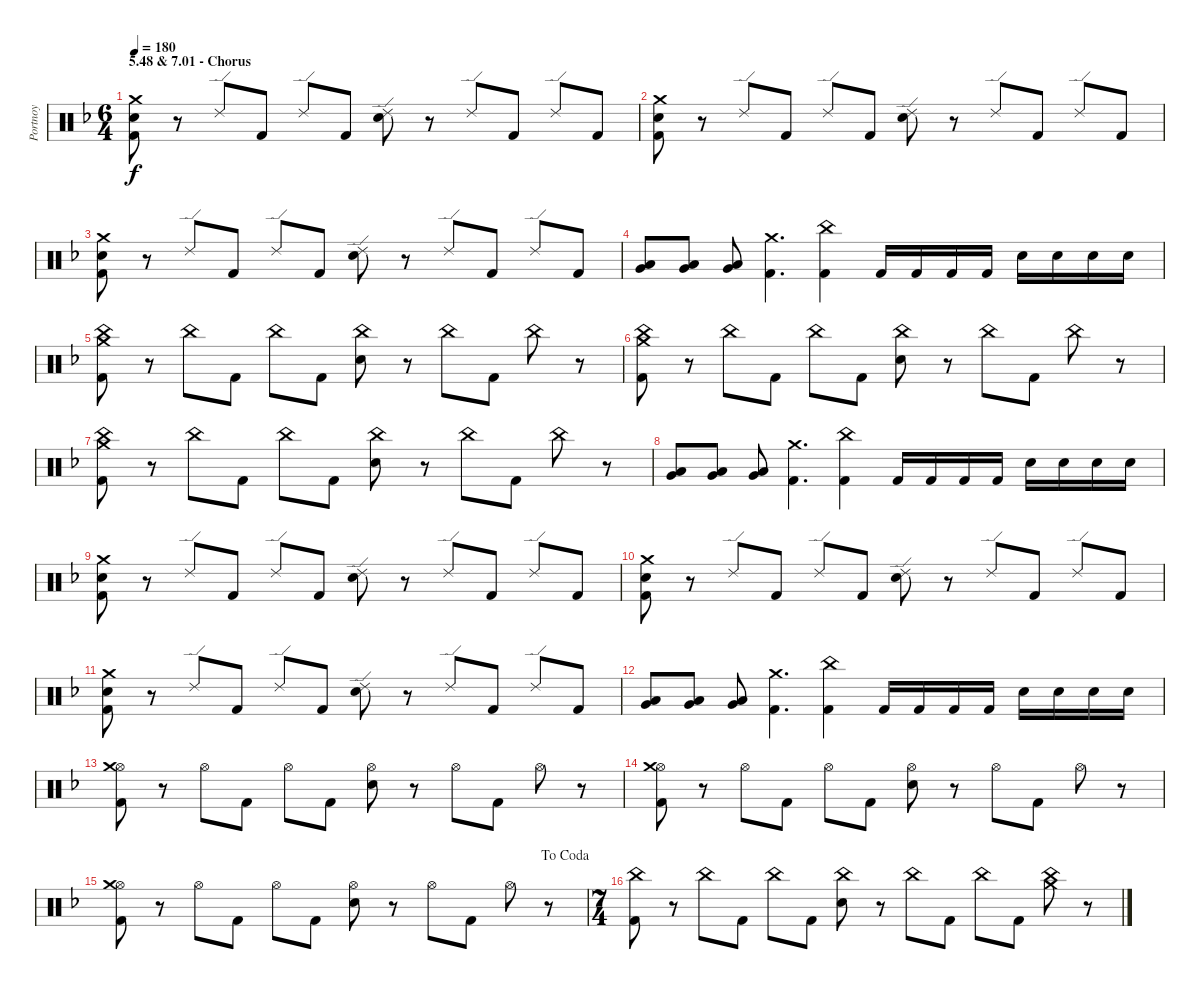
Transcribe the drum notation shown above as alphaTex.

\track ("Portnoy" "Portnoy") {instrument percussion}
\staff {score}
\articulation defaults
\ts (6 4)
\section ("" "5.48 & 7.01 - Chorus")
\tempo 180
\clef neutral
\ks f
("Crash medium (hit)" "Electric Snare (hit)" "Kick (hit) 2").8{dy f} r.8 "Ride (edge) 2".8 "Kick (hit) 2".8 "Ride (edge) 2".8 "Kick (hit) 2".8 ("Ride (edge) 2" "Electric Snare (hit)").8 r.8 "Ride (edge) 2".8 "Kick (hit) 2".8 "Ride (edge) 2".8 "Kick (hit) 2".8 |
("Crash medium (hit)" "Electric Snare (hit)" "Kick (hit) 2").8 r.8 "Ride (edge) 2".8 "Kick (hit) 2".8 "Ride (edge) 2".8 "Kick (hit) 2".8 ("Ride (edge) 2" "Electric Snare (hit)").8 r.8 "Ride (edge) 2".8 "Kick (hit) 2".8 "Ride (edge) 2".8 "Kick (hit) 2".8 |
("Crash medium (hit)" "Electric Snare (hit)" "Kick (hit) 2").8 r.8 "Ride (edge) 2".8 "Kick (hit) 2".8 "Ride (edge) 2".8 "Kick (hit) 2".8 ("Ride (edge) 2" "Electric Snare (hit)").8 r.8 "Ride (edge) 2".8 "Kick (hit) 2".8 "Ride (edge) 2".8 "Kick (hit) 2".8 |
("Very Low Tom (hit)" "Low Tom (hit)").8 ("Very Low Tom (hit)" "Low Tom (hit)").8 ("Very Low Tom (hit)" "Low Tom (hit)").8 ("Crash medium (hit)" "Kick (hit) 2").4{d} ("China (hit)" "Kick (hit) 2").4 "Kick (hit) 2".16 "Kick (hit) 2".16 "Kick (hit) 2".16 "Kick (hit) 2".16 "Electric Snare (hit)".16 "Electric Snare (hit)".16 "Electric Snare (hit)".16 "Electric Snare (hit)".16 |
("China (hit)" "Crash medium (hit)" "Kick (hit) 2").8 r.8 "China (hit)".8 "Kick (hit) 2".8 "China (hit)".8 "Kick (hit) 2".8 ("China (hit)" "Electric Snare (hit)").8 r.8 "China (hit)".8 "Kick (hit) 2".8 "China (hit)".8 r.8 |
("China (hit)" "Crash medium (hit)" "Kick (hit) 2").8 r.8 "China (hit)".8 "Kick (hit) 2".8 "China (hit)".8 "Kick (hit) 2".8 ("China (hit)" "Electric Snare (hit)").8 r.8 "China (hit)".8 "Kick (hit) 2".8 "China (hit)".8 r.8 |
("China (hit)" "Crash medium (hit)" "Kick (hit) 2").8 r.8 "China (hit)".8 "Kick (hit) 2".8 "China (hit)".8 "Kick (hit) 2".8 ("China (hit)" "Electric Snare (hit)").8 r.8 "China (hit)".8 "Kick (hit) 2".8 "China (hit)".8 r.8 |
("Very Low Tom (hit)" "Low Tom (hit)").8 ("Very Low Tom (hit)" "Low Tom (hit)").8 ("Very Low Tom (hit)" "Low Tom (hit)").8 ("Crash medium (hit)" "Kick (hit) 2").4{d} ("China (hit)" "Kick (hit) 2").4 "Kick (hit) 2".16 "Kick (hit) 2".16 "Kick (hit) 2".16 "Kick (hit) 2".16 "Electric Snare (hit)".16 "Electric Snare (hit)".16 "Electric Snare (hit)".16 "Electric Snare (hit)".16 |
("Crash medium (hit)" "Electric Snare (hit)" "Kick (hit) 2").8 r.8 "Ride (edge) 2".8 "Kick (hit) 2".8 "Ride (edge) 2".8 "Kick (hit) 2".8 ("Ride (edge) 2" "Electric Snare (hit)").8 r.8 "Ride (edge) 2".8 "Kick (hit) 2".8 "Ride (edge) 2".8 "Kick (hit) 2".8 |
("Crash medium (hit)" "Electric Snare (hit)" "Kick (hit) 2").8 r.8 "Ride (edge) 2".8 "Kick (hit) 2".8 "Ride (edge) 2".8 "Kick (hit) 2".8 ("Ride (edge) 2" "Electric Snare (hit)").8 r.8 "Ride (edge) 2".8 "Kick (hit) 2".8 "Ride (edge) 2".8 "Kick (hit) 2".8 |
("Crash medium (hit)" "Electric Snare (hit)" "Kick (hit) 2").8 r.8 "Ride (edge) 2".8 "Kick (hit) 2".8 "Ride (edge) 2".8 "Kick (hit) 2".8 ("Ride (edge) 2" "Electric Snare (hit)").8 r.8 "Ride (edge) 2".8 "Kick (hit) 2".8 "Ride (edge) 2".8 "Kick (hit) 2".8 |
("Very Low Tom (hit)" "Low Tom (hit)").8 ("Very Low Tom (hit)" "Low Tom (hit)").8 ("Very Low Tom (hit)" "Low Tom (hit)").8 ("Crash medium (hit)" "Kick (hit) 2").4{d} ("China (hit)" "Kick (hit) 2").4 "Kick (hit) 2".16 "Kick (hit) 2".16 "Kick (hit) 2".16 "Kick (hit) 2".16 "Electric Snare (hit)".16 "Electric Snare (hit)".16 "Electric Snare (hit)".16 "Electric Snare (hit)".16 |
("Hi-Hat (open)" "Crash medium (hit)" "Kick (hit) 2").8 r.8 "Hi-Hat (open)".8 "Kick (hit) 2".8 "Hi-Hat (open)".8 "Kick (hit) 2".8 ("Hi-Hat (open)" "Electric Snare (hit)").8 r.8 "Hi-Hat (open)".8 "Kick (hit) 2".8 "Hi-Hat (open)".8 r.8 |
("Hi-Hat (open)" "Crash medium (hit)" "Kick (hit) 2").8 r.8 "Hi-Hat (open)".8 "Kick (hit) 2".8 "Hi-Hat (open)".8 "Kick (hit) 2".8 ("Hi-Hat (open)" "Electric Snare (hit)").8 r.8 "Hi-Hat (open)".8 "Kick (hit) 2".8 "Hi-Hat (open)".8 r.8 |
\jump dacoda
("Hi-Hat (open)" "Crash medium (hit)" "Kick (hit) 2").8 r.8 "Hi-Hat (open)".8 "Kick (hit) 2".8 "Hi-Hat (open)".8 "Kick (hit) 2".8 ("Hi-Hat (open)" "Electric Snare (hit)").8 r.8 "Hi-Hat (open)".8 "Kick (hit) 2".8 "Hi-Hat (open)".8 r.8 |
\ts (7 4)
("China (hit)" "Kick (hit) 2").8 r.8 "China (hit)".8 "Kick (hit) 2".8 "China (hit)".8 "Kick (hit) 2".8 ("China (hit)" "Electric Snare (hit)").8 r.8 "China (hit)".8 "Kick (hit) 2".8 "China (hit)".8 "Kick (hit) 2".8 ("China (hit)" "Crash medium (hit)").8 r.8
